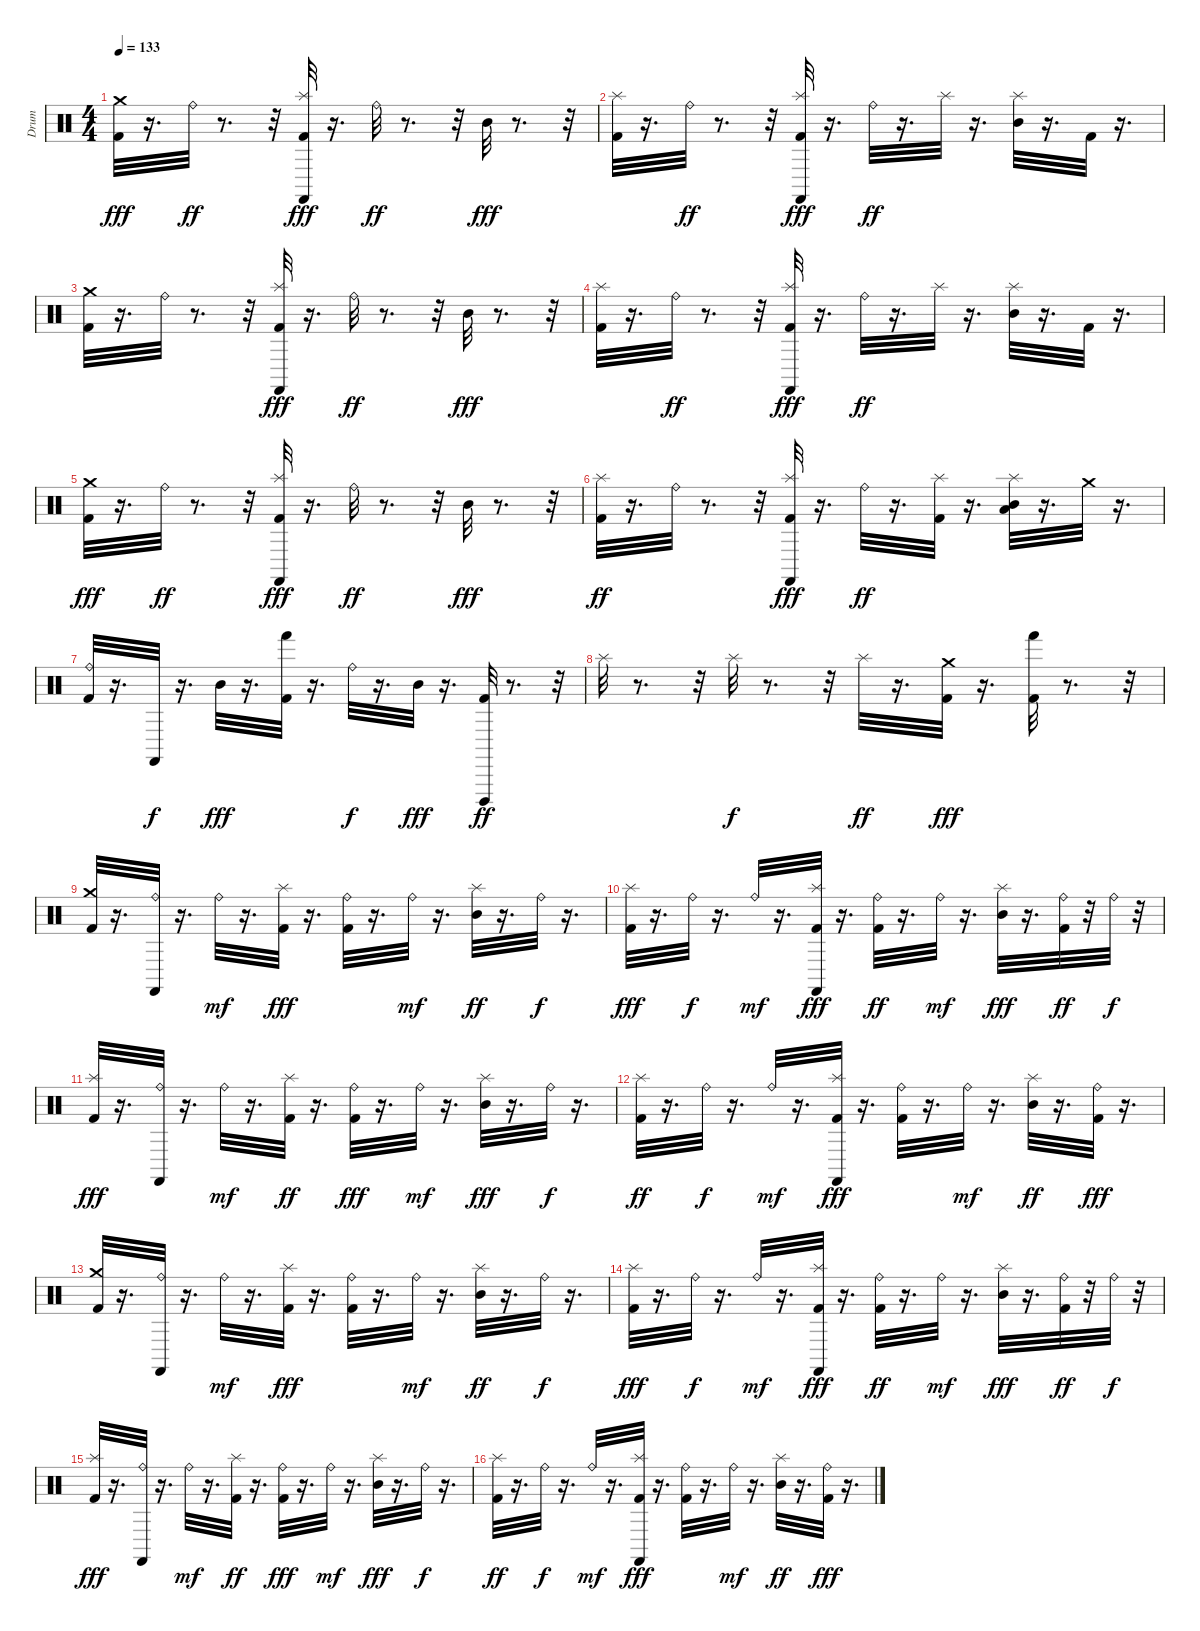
\track ("Drum" "Drum") {instrument percussion}
\staff {score}
\articulation defaults
\ts (4 4)
\tempo 133
\clef neutral
\ks c
("Kick (hit) 2" "Crash medium (hit)").32{dy fff} r.16{d} "Ride (bell)".32{dy ff} r.8{d} r.32 ("Kick (hit) 2" "Splash (hit)" "Castanets (hit)").32{dy fff} r.16{d} "Ride (bell)".32{dy ff} r.8{d} r.32 "Mid Tom (hit)".32{dy fff} r.8{d} r.32 |
("Kick (hit) 2" "Splash (hit)").32 r.16{d} "Ride (bell)".32{dy ff} r.8{d} r.32 ("Kick (hit) 2" "Splash (hit)" "Castanets (hit)").32{dy fff} r.16{d} "Ride (bell)".32{dy ff} r.16{d} "Splash (hit)".32 r.16{d} ("Mid Tom (hit)" "Splash (hit)").32 r.16{d} "Kick (hit) 2".32 r.16{d} |
("Kick (hit) 2" "Crash medium (hit)").32 r.16{d} "Ride (bell)".32 r.8{d} r.32 ("Kick (hit) 2" "Splash (hit)" "Castanets (hit)").32{dy fff} r.16{d} "Ride (bell)".32{dy ff} r.8{d} r.32 "Mid Tom (hit)".32{dy fff} r.8{d} r.32 |
("Kick (hit) 2" "Splash (hit)").32 r.16{d} "Ride (bell)".32{dy ff} r.8{d} r.32 ("Kick (hit) 2" "Splash (hit)" "Castanets (hit)").32{dy fff} r.16{d} "Ride (bell)".32{dy ff} r.16{d} "Splash (hit)".32 r.16{d} ("Mid Tom (hit)" "Splash (hit)").32 r.16{d} "Kick (hit) 2".32 r.16{d} |
("Kick (hit) 2" "Crash medium (hit)").32{dy fff} r.16{d} "Ride (bell)".32{dy ff} r.8{d} r.32 ("Kick (hit) 2" "Splash (hit)" "Castanets (hit)").32{dy fff} r.16{d} "Ride (bell)".32{dy ff} r.8{d} r.32 "Mid Tom (hit)".32{dy fff} r.8{d} r.32 |
("Kick (hit) 2" "Splash (hit)").32{dy ff} r.16{d} "Ride (bell)".32 r.8{d} r.32 ("Kick (hit) 2" "Splash (hit)" "Castanets (hit)").32{dy fff} r.16{d} "Ride (bell)".32{dy ff} r.16{d} ("Kick (hit) 2" "Splash (hit)").32 r.16{d} ("Low Tom (hit)" "Mid Tom (hit)" "Splash (hit)").32 r.16{d} "Crash medium (hit)".32 r.16{d} |
("Kick (hit) 2" "Ride (bell)").32 r.16{d} "Castanets (hit)".32{dy f} r.16{d} "Mid Tom (hit)".32{dy fff} r.16{d} ("Kick (hit) 2" "Hand (hit)").32 r.16{d} "Ride (bell)".32{dy f} r.16{d} "Mid Tom (hit)".32{dy fff} r.16{d} ("Kick (hit) 2" "Cuica (open)").32{dy ff} r.8{d} r.32 |
"Splash (hit)".32 r.8{d} r.32 "Splash (hit)".32{dy f} r.8{d} r.32 "Splash (hit)".32{dy ff} r.16{d} ("Kick (hit) 2" "Crash medium (hit)").32{dy fff} r.16{d} ("Kick (hit) 2" "Hand (hit)").32 r.8{d} r.32 |
("Kick (hit) 2" "Crash medium (hit)").32 r.16{d} ("Ride (bell)" "Castanets (hit)").32 r.16{d} "Ride (bell)".32{dy mf} r.16{d} ("Kick (hit) 2" "Splash (hit)").32{dy fff} r.16{d} ("Kick (hit) 2" "Ride (bell)").32 r.16{d} "Ride (bell)".32{dy mf} r.16{d} ("Mid Tom (hit)" "Splash (hit)").32{dy ff} r.16{d} "Ride (bell)".32{dy f} r.16{d} |
("Kick (hit) 2" "Splash (hit)").32{dy fff} r.16{d} "Ride (bell)".32{dy f} r.16{d} "Ride (bell)".32{dy mf} r.16{d} ("Kick (hit) 2" "Splash (hit)" "Castanets (hit)").32{dy fff} r.16{d} ("Kick (hit) 2" "Ride (bell)").32{dy ff} r.16{d} "Ride (bell)".32{dy mf} r.16{d} ("Mid Tom (hit)" "Splash (hit)").32{dy fff} r.16{d} ("Kick (hit) 2" "Ride (bell)").32{dy ff} r.32 "Ride (bell)".32{dy f} r.32 |
("Kick (hit) 2" "Splash (hit)").32{dy fff} r.16{d} ("Ride (bell)" "Castanets (hit)").32 r.16{d} "Ride (bell)".32{dy mf} r.16{d} ("Kick (hit) 2" "Splash (hit)").32{dy ff} r.16{d} ("Kick (hit) 2" "Ride (bell)").32{dy fff} r.16{d} "Ride (bell)".32{dy mf} r.16{d} ("Mid Tom (hit)" "Splash (hit)").32{dy fff} r.16{d} "Ride (bell)".32{dy f} r.16{d} |
("Kick (hit) 2" "Splash (hit)").32{dy ff} r.16{d} "Ride (bell)".32{dy f} r.16{d} "Ride (bell)".32{dy mf} r.16{d} ("Kick (hit) 2" "Splash (hit)" "Castanets (hit)").32{dy fff} r.16{d} ("Kick (hit) 2" "Ride (bell)").32 r.16{d} "Ride (bell)".32{dy mf} r.16{d} ("Mid Tom (hit)" "Splash (hit)").32{dy ff} r.16{d} ("Kick (hit) 2" "Ride (bell)").32{dy fff} r.16{d} |
("Kick (hit) 2" "Crash medium (hit)").32 r.16{d} ("Ride (bell)" "Castanets (hit)").32 r.16{d} "Ride (bell)".32{dy mf} r.16{d} ("Kick (hit) 2" "Splash (hit)").32{dy fff} r.16{d} ("Kick (hit) 2" "Ride (bell)").32 r.16{d} "Ride (bell)".32{dy mf} r.16{d} ("Mid Tom (hit)" "Splash (hit)").32{dy ff} r.16{d} "Ride (bell)".32{dy f} r.16{d} |
("Kick (hit) 2" "Splash (hit)").32{dy fff} r.16{d} "Ride (bell)".32{dy f} r.16{d} "Ride (bell)".32{dy mf} r.16{d} ("Kick (hit) 2" "Splash (hit)" "Castanets (hit)").32{dy fff} r.16{d} ("Kick (hit) 2" "Ride (bell)").32{dy ff} r.16{d} "Ride (bell)".32{dy mf} r.16{d} ("Mid Tom (hit)" "Splash (hit)").32{dy fff} r.16{d} ("Kick (hit) 2" "Ride (bell)").32{dy ff} r.32 "Ride (bell)".32{dy f} r.32 |
("Kick (hit) 2" "Splash (hit)").32{dy fff} r.16{d} ("Ride (bell)" "Castanets (hit)").32 r.16{d} "Ride (bell)".32{dy mf} r.16{d} ("Kick (hit) 2" "Splash (hit)").32{dy ff} r.16{d} ("Kick (hit) 2" "Ride (bell)").32{dy fff} r.16{d} "Ride (bell)".32{dy mf} r.16{d} ("Mid Tom (hit)" "Splash (hit)").32{dy fff} r.16{d} "Ride (bell)".32{dy f} r.16{d} |
("Kick (hit) 2" "Splash (hit)").32{dy ff} r.16{d} "Ride (bell)".32{dy f} r.16{d} "Ride (bell)".32{dy mf} r.16{d} ("Kick (hit) 2" "Splash (hit)" "Castanets (hit)").32{dy fff} r.16{d} ("Kick (hit) 2" "Ride (bell)").32 r.16{d} "Ride (bell)".32{dy mf} r.16{d} ("Mid Tom (hit)" "Splash (hit)").32{dy ff} r.16{d} ("Kick (hit) 2" "Ride (bell)").32{dy fff} r.16{d}
